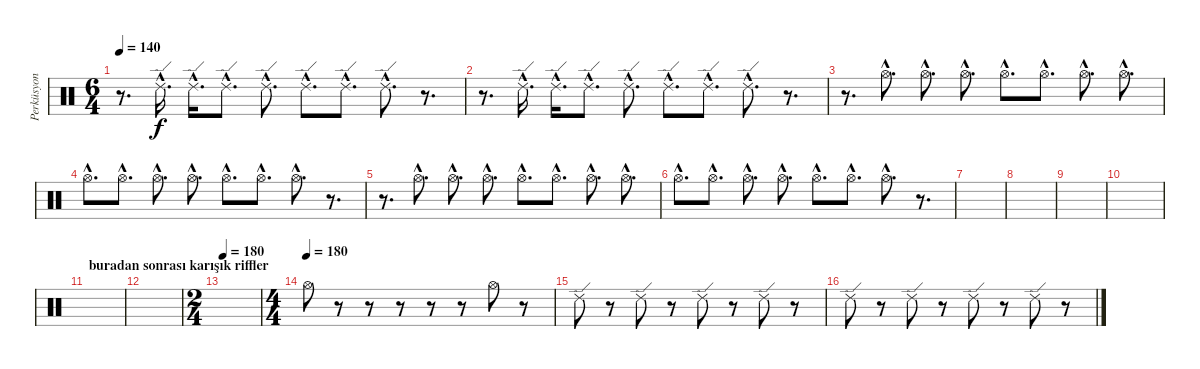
\track ("Perküsyon" "Perküsyon") {instrument percussion}
\staff {score}
\articulation defaults
\ts (6 4)
\tempo 140
\clef neutral
\ks c
r.8{d dy f} "Ride (edge) 2"{hac}.16{d} "Ride (edge) 2"{hac}.16{d} "Ride (edge) 2"{hac}.8{d} "Ride (edge) 2"{hac}.8{d} "Ride (edge) 2"{hac}.8{d} "Ride (edge) 2"{hac}.8{d} "Ride (edge) 2"{hac}.8{d} r.8{d} |
r.8{d} "Ride (edge) 2"{hac}.16{d} "Ride (edge) 2"{hac}.16{d} "Ride (edge) 2"{hac}.8{d} "Ride (edge) 2"{hac}.8{d} "Ride (edge) 2"{hac}.8{d} "Ride (edge) 2"{hac}.8{d} "Ride (edge) 2"{hac}.8{d} r.8{d} |
r.8{d} "Hi-Hat (open)"{hac}.8{d} "Hi-Hat (open)"{hac}.8{d} "Hi-Hat (open)"{hac}.8{d} "Hi-Hat (open)"{hac}.8{d} "Hi-Hat (open)"{hac}.8{d} "Hi-Hat (open)"{hac}.8{d} "Hi-Hat (open)"{hac}.8{d} |
"Hi-Hat (open)"{hac}.8{d} "Hi-Hat (open)"{hac}.8{d} "Hi-Hat (open)"{hac}.8{d} "Hi-Hat (open)"{hac}.8{d} "Hi-Hat (open)"{hac}.8{d} "Hi-Hat (open)"{hac}.8{d} "Hi-Hat (open)"{hac}.8{d} r.8{d} |
r.8{d} "Hi-Hat (open)"{hac}.8{d} "Hi-Hat (open)"{hac}.8{d} "Hi-Hat (open)"{hac}.8{d} "Hi-Hat (open)"{hac}.8{d} "Hi-Hat (open)"{hac}.8{d} "Hi-Hat (open)"{hac}.8{d} "Hi-Hat (open)"{hac}.8{d} |
"Hi-Hat (open)"{hac}.8{d} "Hi-Hat (open)"{hac}.8{d} "Hi-Hat (open)"{hac}.8{d} "Hi-Hat (open)"{hac}.8{d} "Hi-Hat (open)"{hac}.8{d} "Hi-Hat (open)"{hac}.8{d} "Hi-Hat (open)"{hac}.8{d} r.8{d} |
|
|
|
|
\section ("" "buradan sonrası karışık riffler")
|
|
\ts (2 4)
\tempo 180
|
\ts (4 4)
\tempo (180)
"Hi-Hat (open)".8 r.8 r.8 r.8 r.8 r.8 "Hi-Hat (open)".8 r.8 |
"Ride (edge) 2".8 r.8 "Ride (edge) 2".8 r.8 "Ride (edge) 2".8 r.8 "Ride (edge) 2".8 r.8 |
"Ride (edge) 2".8 r.8 "Ride (edge) 2".8 r.8 "Ride (edge) 2".8 r.8 "Ride (edge) 2".8 r.8
